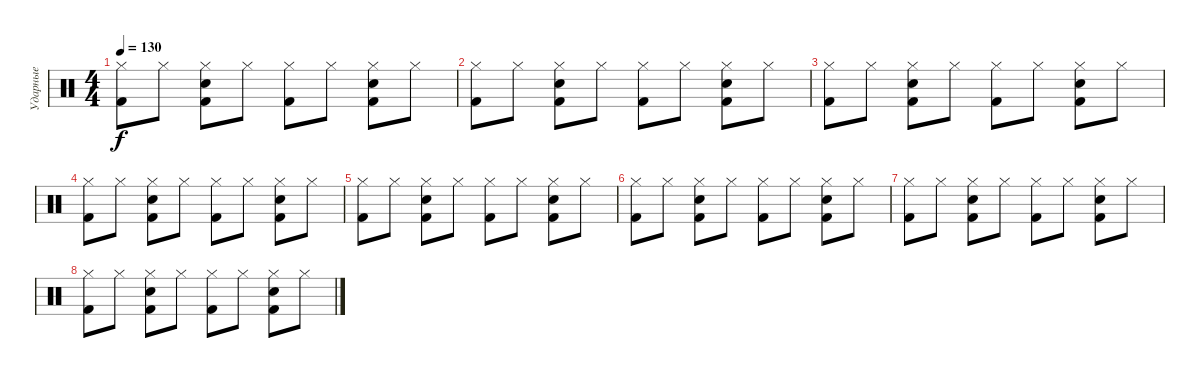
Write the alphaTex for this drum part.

\track ("Ударные" "Ударные") {instrument percussion}
\staff {score}
\articulation defaults
\ts (4 4)
\tempo 130
\clef neutral
\ks c
("Hi-Hat (closed)" "Kick (hit) 2").8{dy f} "Hi-Hat (closed)".8 ("Hi-Hat (closed)" "Snare (hit) 2" "Kick (hit) 2").8 "Hi-Hat (closed)".8 ("Hi-Hat (closed)" "Kick (hit) 2").8 "Hi-Hat (closed)".8 ("Hi-Hat (closed)" "Snare (hit) 2" "Kick (hit) 2").8 "Hi-Hat (closed)".8 |
("Hi-Hat (closed)" "Kick (hit) 2").8 "Hi-Hat (closed)".8 ("Hi-Hat (closed)" "Snare (hit) 2" "Kick (hit) 2").8 "Hi-Hat (closed)".8 ("Hi-Hat (closed)" "Kick (hit) 2").8 "Hi-Hat (closed)".8 ("Hi-Hat (closed)" "Snare (hit) 2" "Kick (hit) 2").8 "Hi-Hat (closed)".8 |
("Hi-Hat (closed)" "Kick (hit) 2").8 "Hi-Hat (closed)".8 ("Hi-Hat (closed)" "Snare (hit) 2" "Kick (hit) 2").8 "Hi-Hat (closed)".8 ("Hi-Hat (closed)" "Kick (hit) 2").8 "Hi-Hat (closed)".8 ("Hi-Hat (closed)" "Snare (hit) 2" "Kick (hit) 2").8 "Hi-Hat (closed)".8 |
("Hi-Hat (closed)" "Kick (hit) 2").8 "Hi-Hat (closed)".8 ("Hi-Hat (closed)" "Snare (hit) 2" "Kick (hit) 2").8 "Hi-Hat (closed)".8 ("Hi-Hat (closed)" "Kick (hit) 2").8 "Hi-Hat (closed)".8 ("Hi-Hat (closed)" "Snare (hit) 2" "Kick (hit) 2").8 "Hi-Hat (closed)".8 |
("Hi-Hat (closed)" "Kick (hit) 2").8 "Hi-Hat (closed)".8 ("Hi-Hat (closed)" "Snare (hit) 2" "Kick (hit) 2").8 "Hi-Hat (closed)".8 ("Hi-Hat (closed)" "Kick (hit) 2").8 "Hi-Hat (closed)".8 ("Hi-Hat (closed)" "Snare (hit) 2" "Kick (hit) 2").8 "Hi-Hat (closed)".8 |
("Hi-Hat (closed)" "Kick (hit) 2").8 "Hi-Hat (closed)".8 ("Hi-Hat (closed)" "Snare (hit) 2" "Kick (hit) 2").8 "Hi-Hat (closed)".8 ("Hi-Hat (closed)" "Kick (hit) 2").8 "Hi-Hat (closed)".8 ("Hi-Hat (closed)" "Snare (hit) 2" "Kick (hit) 2").8 "Hi-Hat (closed)".8 |
("Hi-Hat (closed)" "Kick (hit) 2").8 "Hi-Hat (closed)".8 ("Hi-Hat (closed)" "Snare (hit) 2" "Kick (hit) 2").8 "Hi-Hat (closed)".8 ("Hi-Hat (closed)" "Kick (hit) 2").8 "Hi-Hat (closed)".8 ("Hi-Hat (closed)" "Snare (hit) 2" "Kick (hit) 2").8 "Hi-Hat (closed)".8 |
("Hi-Hat (closed)" "Kick (hit) 2").8 "Hi-Hat (closed)".8 ("Hi-Hat (closed)" "Snare (hit) 2" "Kick (hit) 2").8 "Hi-Hat (closed)".8 ("Hi-Hat (closed)" "Kick (hit) 2").8 "Hi-Hat (closed)".8 ("Hi-Hat (closed)" "Snare (hit) 2" "Kick (hit) 2").8 "Hi-Hat (closed)".8
